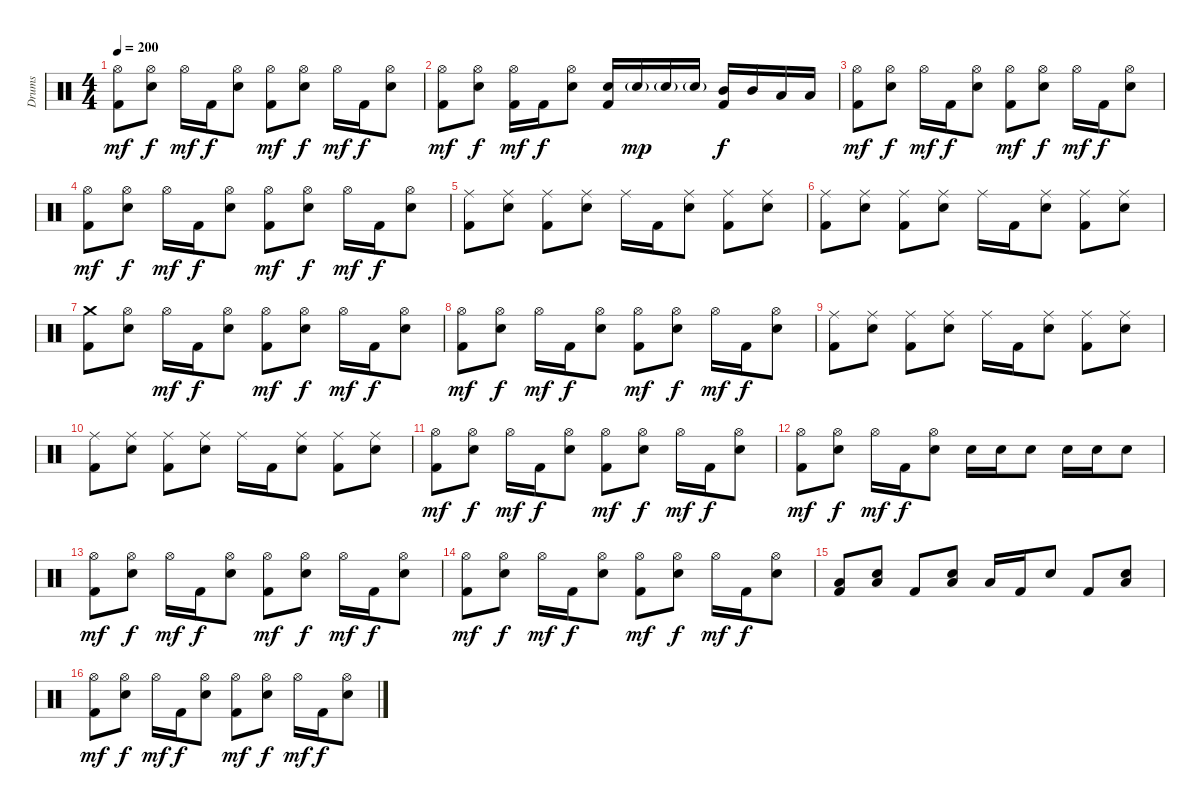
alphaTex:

\track ("Drums" "Drums") {instrument percussion}
\staff {score}
\articulation defaults
\ts (4 4)
\tempo 200
\clef neutral
\ks c
("Hi-Hat (open)" "Kick (hit) 2").8{dy mf} ("Hi-Hat (open)" "Electric Snare (hit)").8{dy f} "Hi-Hat (open)".16{dy mf} "Kick (hit) 2".16{dy f} ("Hi-Hat (open)" "Electric Snare (hit)").8 ("Hi-Hat (open)" "Kick (hit) 2").8{dy mf} ("Hi-Hat (open)" "Electric Snare (hit)").8{dy f} "Hi-Hat (open)".16{dy mf} "Kick (hit) 2".16{dy f} ("Hi-Hat (open)" "Electric Snare (hit)").8 |
("Hi-Hat (open)" "Kick (hit) 2").8{dy mf} ("Hi-Hat (open)" "Electric Snare (hit)").8{dy f} ("Hi-Hat (open)" "Kick (hit) 2").16{dy mf} "Kick (hit) 2".16{dy f} ("Hi-Hat (open)" "Electric Snare (hit)").8 ("Electric Snare (hit)" "Kick (hit) 2").16 "Electric Snare (hit)"{g}.16{dy mp} "Electric Snare (hit)"{g}.16 "Electric Snare (hit)"{g}.16 ("Mid Tom (hit)" "Kick (hit) 2").16{dy f} "Mid Tom (hit)".16 "Low Tom (hit)".16 "Low Tom (hit)".16 |
("Hi-Hat (open)" "Kick (hit) 2").8{dy mf} ("Hi-Hat (open)" "Electric Snare (hit)").8{dy f} "Hi-Hat (open)".16{dy mf} "Kick (hit) 2".16{dy f} ("Hi-Hat (open)" "Electric Snare (hit)").8 ("Hi-Hat (open)" "Kick (hit) 2").8{dy mf} ("Hi-Hat (open)" "Electric Snare (hit)").8{dy f} "Hi-Hat (open)".16{dy mf} "Kick (hit) 2".16{dy f} ("Hi-Hat (open)" "Electric Snare (hit)").8 |
("Hi-Hat (open)" "Kick (hit) 2").8{dy mf} ("Hi-Hat (open)" "Electric Snare (hit)").8{dy f} "Hi-Hat (open)".16{dy mf} "Kick (hit) 2".16{dy f} ("Hi-Hat (open)" "Electric Snare (hit)").8 ("Hi-Hat (open)" "Kick (hit) 2").8{dy mf} ("Hi-Hat (open)" "Electric Snare (hit)").8{dy f} "Hi-Hat (open)".16{dy mf} "Kick (hit) 2".16{dy f} ("Hi-Hat (open)" "Electric Snare (hit)").8 |
("Ride (middle)" "Kick (hit) 2").8 ("Ride (middle)" "Electric Snare (hit)").8 ("Ride (middle)" "Kick (hit) 2").8 ("Ride (middle)" "Electric Snare (hit)").8 "Ride (middle)".16 "Kick (hit) 2".16 ("Ride (middle)" "Electric Snare (hit)").8 ("Ride (middle)" "Kick (hit) 2").8 ("Ride (middle)" "Electric Snare (hit)").8 |
("Ride (middle)" "Kick (hit) 2").8 ("Ride (middle)" "Electric Snare (hit)").8 ("Ride (middle)" "Kick (hit) 2").8 ("Ride (middle)" "Electric Snare (hit)").8 "Ride (middle)".16 "Kick (hit) 2".16 ("Ride (middle)" "Electric Snare (hit)").8 ("Ride (middle)" "Kick (hit) 2").8 ("Ride (middle)" "Electric Snare (hit)").8 |
("Crash medium (hit)" "Kick (hit) 2").8 ("Hi-Hat (open)" "Electric Snare (hit)").8 "Hi-Hat (open)".16{dy mf} "Kick (hit) 2".16{dy f} ("Hi-Hat (open)" "Electric Snare (hit)").8 ("Hi-Hat (open)" "Kick (hit) 2").8{dy mf} ("Hi-Hat (open)" "Electric Snare (hit)").8{dy f} "Hi-Hat (open)".16{dy mf} "Kick (hit) 2".16{dy f} ("Hi-Hat (open)" "Electric Snare (hit)").8 |
("Hi-Hat (open)" "Kick (hit) 2").8{dy mf} ("Hi-Hat (open)" "Electric Snare (hit)").8{dy f} "Hi-Hat (open)".16{dy mf} "Kick (hit) 2".16{dy f} ("Hi-Hat (open)" "Electric Snare (hit)").8 ("Hi-Hat (open)" "Kick (hit) 2").8{dy mf} ("Hi-Hat (open)" "Electric Snare (hit)").8{dy f} "Hi-Hat (open)".16{dy mf} "Kick (hit) 2".16{dy f} ("Hi-Hat (open)" "Electric Snare (hit)").8 |
("Ride (middle)" "Kick (hit) 2").8 ("Ride (middle)" "Electric Snare (hit)").8 ("Ride (middle)" "Kick (hit) 2").8 ("Ride (middle)" "Electric Snare (hit)").8 "Ride (middle)".16 "Kick (hit) 2".16 ("Ride (middle)" "Electric Snare (hit)").8 ("Ride (middle)" "Kick (hit) 2").8 ("Ride (middle)" "Electric Snare (hit)").8 |
("Ride (middle)" "Kick (hit) 2").8 ("Ride (middle)" "Electric Snare (hit)").8 ("Ride (middle)" "Kick (hit) 2").8 ("Ride (middle)" "Electric Snare (hit)").8 "Ride (middle)".16 "Kick (hit) 2".16 ("Ride (middle)" "Electric Snare (hit)").8 ("Ride (middle)" "Kick (hit) 2").8 ("Ride (middle)" "Electric Snare (hit)").8 |
("Hi-Hat (open)" "Kick (hit) 2").8{dy mf} ("Hi-Hat (open)" "Electric Snare (hit)").8{dy f} "Hi-Hat (open)".16{dy mf} "Kick (hit) 2".16{dy f} ("Hi-Hat (open)" "Electric Snare (hit)").8 ("Hi-Hat (open)" "Kick (hit) 2").8{dy mf} ("Hi-Hat (open)" "Electric Snare (hit)").8{dy f} "Hi-Hat (open)".16{dy mf} "Kick (hit) 2".16{dy f} ("Hi-Hat (open)" "Electric Snare (hit)").8 |
("Hi-Hat (open)" "Kick (hit) 2").8{dy mf} ("Hi-Hat (open)" "Electric Snare (hit)").8{dy f} "Hi-Hat (open)".16{dy mf} "Kick (hit) 2".16{dy f} ("Hi-Hat (open)" "Electric Snare (hit)").8 "Electric Snare (hit)".16 "Electric Snare (hit)".16 "Electric Snare (hit)".8 "Electric Snare (hit)".16 "Electric Snare (hit)".16 "Electric Snare (hit)".8 |
("Hi-Hat (open)" "Kick (hit) 2").8{dy mf} ("Hi-Hat (open)" "Electric Snare (hit)").8{dy f} "Hi-Hat (open)".16{dy mf} "Kick (hit) 2".16{dy f} ("Hi-Hat (open)" "Electric Snare (hit)").8 ("Hi-Hat (open)" "Kick (hit) 2").8{dy mf} ("Hi-Hat (open)" "Electric Snare (hit)").8{dy f} "Hi-Hat (open)".16{dy mf} "Kick (hit) 2".16{dy f} ("Hi-Hat (open)" "Electric Snare (hit)").8 |
("Hi-Hat (open)" "Kick (hit) 2").8{dy mf} ("Hi-Hat (open)" "Electric Snare (hit)").8{dy f} "Hi-Hat (open)".16{dy mf} "Kick (hit) 2".16{dy f} ("Hi-Hat (open)" "Electric Snare (hit)").8 ("Hi-Hat (open)" "Kick (hit) 2").8{dy mf} ("Hi-Hat (open)" "Electric Snare (hit)").8{dy f} "Hi-Hat (open)".16{dy mf} "Kick (hit) 2".16{dy f} ("Hi-Hat (open)" "Electric Snare (hit)").8 |
("Low Floor Tom (hit)" "Kick (hit) 2").8 ("Low Floor Tom (hit)" "Electric Snare (hit)").8 "Kick (hit) 2".8 ("Low Floor Tom (hit)" "Electric Snare (hit)").8 "Low Floor Tom (hit)".16 "Kick (hit) 2".16 "Electric Snare (hit)".8 "Kick (hit) 2".8 ("Low Floor Tom (hit)" "Electric Snare (hit)").8 |
("Hi-Hat (open)" "Kick (hit) 2").8{dy mf} ("Hi-Hat (open)" "Electric Snare (hit)").8{dy f} "Hi-Hat (open)".16{dy mf} "Kick (hit) 2".16{dy f} ("Hi-Hat (open)" "Electric Snare (hit)").8 ("Hi-Hat (open)" "Kick (hit) 2").8{dy mf} ("Hi-Hat (open)" "Electric Snare (hit)").8{dy f} "Hi-Hat (open)".16{dy mf} "Kick (hit) 2".16{dy f} ("Hi-Hat (open)" "Electric Snare (hit)").8
